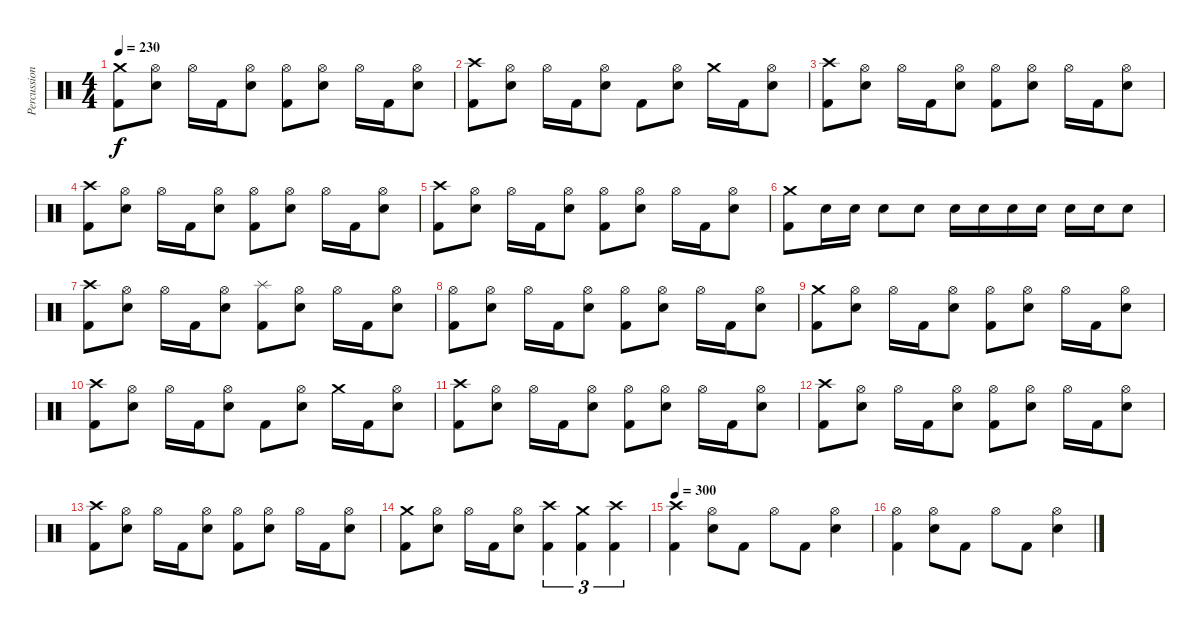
\track ("Percussion" "Percussion") {instrument percussion}
\staff {score}
\articulation defaults
\ts (4 4)
\tempo 230
\clef neutral
\ks c
("Crash medium (hit)" "Kick (hit) 2").8{dy f} ("Hi-Hat (open)" "Electric Snare (hit)").8 "Hi-Hat (open)".16 "Kick (hit) 2".16 ("Hi-Hat (open)" "Electric Snare (hit)").8 ("Hi-Hat (open)" "Kick (hit) 2").8 ("Hi-Hat (open)" "Electric Snare (hit)").8 "Hi-Hat (open)".16 "Kick (hit) 2".16 ("Hi-Hat (open)" "Electric Snare (hit)").8 |
("Crash high (hit)" "Kick (hit) 2").8 ("Hi-Hat (open)" "Electric Snare (hit)").8 "Hi-Hat (open)".16 "Kick (hit) 2".16 ("Hi-Hat (open)" "Electric Snare (hit)").8 "Kick (hit) 2".8 ("Hi-Hat (open)" "Electric Snare (hit)").8 "Crash medium (hit)".16 "Kick (hit) 2".16 ("Hi-Hat (open)" "Electric Snare (hit)").8 |
("Crash high (hit)" "Kick (hit) 2").8 ("Hi-Hat (open)" "Electric Snare (hit)").8 "Hi-Hat (open)".16 "Kick (hit) 2".16 ("Hi-Hat (open)" "Electric Snare (hit)").8 ("Hi-Hat (open)" "Kick (hit) 2").8 ("Hi-Hat (open)" "Electric Snare (hit)").8 "Hi-Hat (open)".16 "Kick (hit) 2".16 ("Hi-Hat (open)" "Electric Snare (hit)").8 |
("Crash high (hit)" "Kick (hit) 2").8 ("Hi-Hat (open)" "Electric Snare (hit)").8 "Hi-Hat (open)".16 "Kick (hit) 2".16 ("Hi-Hat (open)" "Electric Snare (hit)").8 ("Hi-Hat (open)" "Kick (hit) 2").8 ("Hi-Hat (open)" "Electric Snare (hit)").8 "Hi-Hat (open)".16 "Kick (hit) 2".16 ("Hi-Hat (open)" "Electric Snare (hit)").8 |
("Crash high (hit)" "Kick (hit) 2").8 ("Hi-Hat (open)" "Electric Snare (hit)").8 "Hi-Hat (open)".16 "Kick (hit) 2".16 ("Hi-Hat (open)" "Electric Snare (hit)").8 ("Hi-Hat (open)" "Kick (hit) 2").8 ("Hi-Hat (open)" "Electric Snare (hit)").8 "Hi-Hat (open)".16 "Kick (hit) 2".16 ("Hi-Hat (open)" "Electric Snare (hit)").8 |
("Crash medium (hit)" "Kick (hit) 2").8 "Electric Snare (hit)".16 "Electric Snare (hit)".16 "Electric Snare (hit)".8 "Electric Snare (hit)".8 "Electric Snare (hit)".16 "Electric Snare (hit)".16 "Electric Snare (hit)".16 "Electric Snare (hit)".16 "Electric Snare (hit)".16 "Electric Snare (hit)".16 "Electric Snare (hit)".8 |
("Crash high (hit)" "Kick (hit) 2").8 ("Hi-Hat (open)" "Electric Snare (hit)").8 "Hi-Hat (open)".16 "Kick (hit) 2".16 ("Hi-Hat (open)" "Electric Snare (hit)").8 ("Splash (hit)" "Kick (hit) 2").8 ("Hi-Hat (open)" "Electric Snare (hit)").8 "Hi-Hat (open)".16 "Kick (hit) 2".16 ("Hi-Hat (open)" "Electric Snare (hit)").8 |
("Hi-Hat (open)" "Kick (hit) 2").8 ("Hi-Hat (open)" "Electric Snare (hit)").8 "Hi-Hat (open)".16 "Kick (hit) 2".16 ("Hi-Hat (open)" "Electric Snare (hit)").8 ("Hi-Hat (open)" "Kick (hit) 2").8 ("Hi-Hat (open)" "Electric Snare (hit)").8 "Hi-Hat (open)".16 "Kick (hit) 2".16 ("Hi-Hat (open)" "Electric Snare (hit)").8 |
("Crash medium (hit)" "Kick (hit) 2").8 ("Hi-Hat (open)" "Electric Snare (hit)").8 "Hi-Hat (open)".16 "Kick (hit) 2".16 ("Hi-Hat (open)" "Electric Snare (hit)").8 ("Hi-Hat (open)" "Kick (hit) 2").8 ("Hi-Hat (open)" "Electric Snare (hit)").8 "Hi-Hat (open)".16 "Kick (hit) 2".16 ("Hi-Hat (open)" "Electric Snare (hit)").8 |
("Crash high (hit)" "Kick (hit) 2").8 ("Hi-Hat (open)" "Electric Snare (hit)").8 "Hi-Hat (open)".16 "Kick (hit) 2".16 ("Hi-Hat (open)" "Electric Snare (hit)").8 "Kick (hit) 2".8 ("Hi-Hat (open)" "Electric Snare (hit)").8 "Crash medium (hit)".16 "Kick (hit) 2".16 ("Hi-Hat (open)" "Electric Snare (hit)").8 |
("Crash high (hit)" "Kick (hit) 2").8 ("Hi-Hat (open)" "Electric Snare (hit)").8 "Hi-Hat (open)".16 "Kick (hit) 2".16 ("Hi-Hat (open)" "Electric Snare (hit)").8 ("Hi-Hat (open)" "Kick (hit) 2").8 ("Hi-Hat (open)" "Electric Snare (hit)").8 "Hi-Hat (open)".16 "Kick (hit) 2".16 ("Hi-Hat (open)" "Electric Snare (hit)").8 |
("Crash high (hit)" "Kick (hit) 2").8 ("Hi-Hat (open)" "Electric Snare (hit)").8 "Hi-Hat (open)".16 "Kick (hit) 2".16 ("Hi-Hat (open)" "Electric Snare (hit)").8 ("Hi-Hat (open)" "Kick (hit) 2").8 ("Hi-Hat (open)" "Electric Snare (hit)").8 "Hi-Hat (open)".16 "Kick (hit) 2".16 ("Hi-Hat (open)" "Electric Snare (hit)").8 |
("Crash high (hit)" "Kick (hit) 2").8 ("Hi-Hat (open)" "Electric Snare (hit)").8 "Hi-Hat (open)".16 "Kick (hit) 2".16 ("Hi-Hat (open)" "Electric Snare (hit)").8 ("Hi-Hat (open)" "Kick (hit) 2").8 ("Hi-Hat (open)" "Electric Snare (hit)").8 "Hi-Hat (open)".16 "Kick (hit) 2".16 ("Hi-Hat (open)" "Electric Snare (hit)").8 |
("Crash medium (hit)" "Kick (hit) 2").8 ("Hi-Hat (open)" "Electric Snare (hit)").8 "Hi-Hat (open)".16 "Kick (hit) 2".16 ("Hi-Hat (open)" "Electric Snare (hit)").8 ("Crash high (hit)" "Kick (hit) 2").4{tu (3 2)} ("Crash medium (hit)" "Kick (hit) 2").4{tu (3 2)} ("Crash high (hit)" "Kick (hit) 2").4{tu (3 2)} |
\tempo 300
("Crash high (hit)" "Kick (hit) 2").4 ("Hi-Hat (open)" "Electric Snare (hit)").8 "Kick (hit) 2".8 "Hi-Hat (open)".8 "Kick (hit) 2".8 ("Hi-Hat (open)" "Electric Snare (hit)").4 |
("Hi-Hat (open)" "Kick (hit) 2").4 ("Hi-Hat (open)" "Electric Snare (hit)").8 "Kick (hit) 2".8 "Hi-Hat (open)".8 "Kick (hit) 2".8 ("Hi-Hat (open)" "Electric Snare (hit)").4
